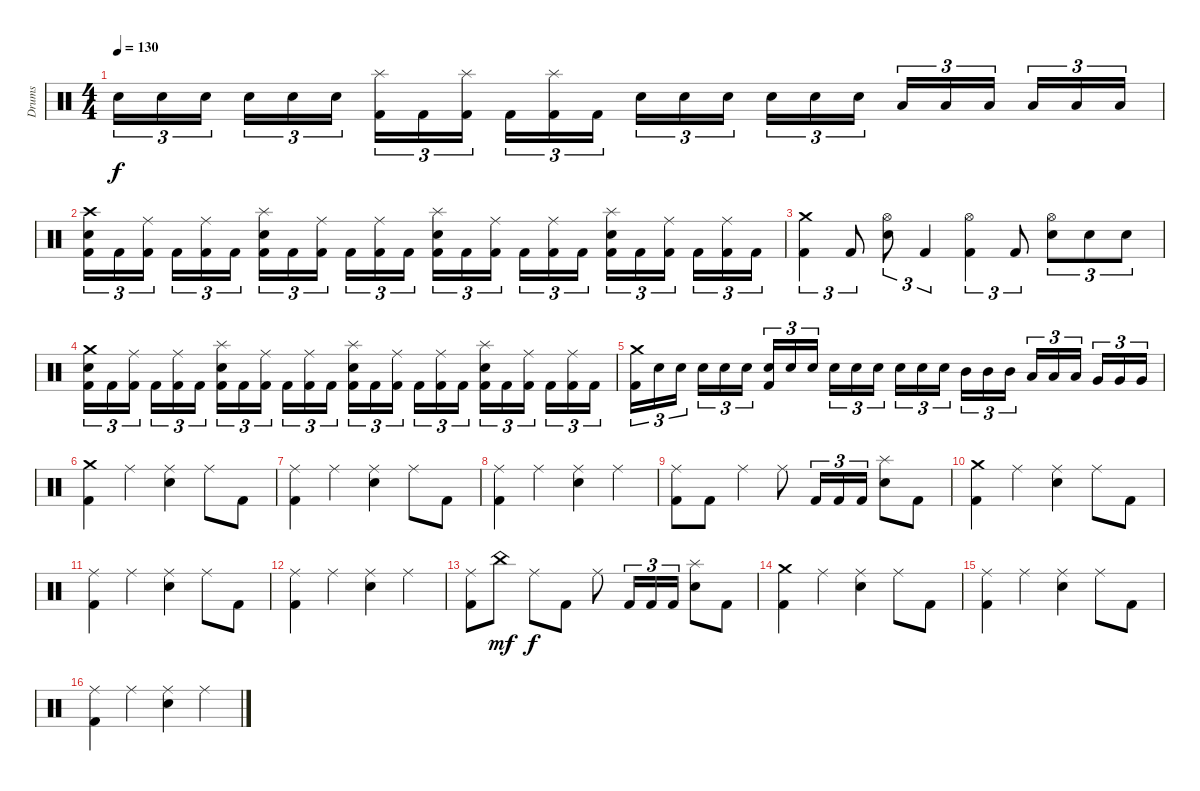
\track ("Drums" "Drums") {instrument percussion}
\staff {score}
\articulation defaults
\ts (4 4)
\tempo 130
\clef neutral
\ks c "Electric Snare (hit)".16{tu (3 2) dy f} "Electric Snare (hit)".16{tu (3 2)} "Electric Snare (hit)".16{tu (3 2)} "Electric Snare (hit)".16{tu (3 2)} "Electric Snare (hit)".16{tu (3 2)} "Electric Snare (hit)".16{tu (3 2)}
("Kick (hit) 2" "Splash (hit)").16{tu (3 2)} "Kick (hit) 2".16{tu (3 2)} ("Kick (hit) 2" "Splash (hit)").16{tu (3 2)} "Kick (hit) 2".16{tu (3 2)} ("Kick (hit) 2" "Splash (hit)").16{tu (3 2)} "Kick (hit) 2".16{tu (3 2)} "Electric Snare (hit)".16{tu (3 2)} "Electric Snare (hit)".16{tu (3 2)} "Electric Snare (hit)".16{tu (3 2)} "Electric Snare (hit)".16{tu (3 2)} "Electric Snare (hit)".16{tu (3 2)} "Electric Snare (hit)".16{tu (3 2)} "Low Tom (hit)".16{tu (3 2)} "Low Tom (hit)".16{tu (3 2)} "Low Tom (hit)".16{tu (3 2)} "Low Tom (hit)".16{tu (3 2)} "Low Tom (hit)".16{tu (3 2)} "Low Tom (hit)".16{tu (3 2)} |
("Kick (hit) 2" "Electric Snare (hit)" "Crash high (hit)").16{tu (3 2)} "Kick (hit) 2".16{tu (3 2)} ("Kick (hit) 2" "Ride (middle)").16{tu (3 2)} "Kick (hit) 2".16{tu (3 2)} ("Kick (hit) 2" "Ride (middle)").16{tu (3 2)} "Kick (hit) 2".16{tu (3 2)} ("Kick (hit) 2" "Electric Snare (hit)" "Splash (hit)").16{tu (3 2)} "Kick (hit) 2".16{tu (3 2)} ("Kick (hit) 2" "Ride (middle)").16{tu (3 2)} "Kick (hit) 2".16{tu (3 2)} ("Kick (hit) 2" "Ride (middle)").16{tu (3 2)} "Kick (hit) 2".16{tu (3 2)} ("Kick (hit) 2" "Electric Snare (hit)" "Splash (hit)").16{tu (3 2)} "Kick (hit) 2".16{tu (3 2)} ("Kick (hit) 2" "Ride (middle)").16{tu (3 2)} "Kick (hit) 2".16{tu (3 2)} ("Kick (hit) 2" "Ride (middle)").16{tu (3 2)} "Kick (hit) 2".16{tu (3 2)} ("Kick (hit) 2" "Electric Snare (hit)" "Splash (hit)").16{tu (3 2)} "Kick (hit) 2".16{tu (3 2)} ("Kick (hit) 2" "Ride (middle)").16{tu (3 2)} "Kick (hit) 2".16{tu (3 2)} ("Kick (hit) 2" "Ride (middle)").16{tu (3 2)} "Kick (hit) 2".16{tu (3 2)} |
("Kick (hit) 2" "Crash medium (hit)").4{tu (3 2)} "Kick (hit) 2".8{tu (3 2)} ("Electric Snare (hit)" "Hi-Hat (open)").8{tu (3 2)} "Kick (hit) 2".4{tu (3 2)} ("Kick (hit) 2" "Hi-Hat (open)").4{tu (3 2)} "Kick (hit) 2".8{tu (3 2)} ("Electric Snare (hit)" "Hi-Hat (open)").8{tu (3 2)} "Electric Snare (hit)".8{tu (3 2)} "Electric Snare (hit)".8{tu (3 2)} |
("Kick (hit) 2" "Electric Snare (hit)" "Crash medium (hit)").16{tu (3 2)} "Kick (hit) 2".16{tu (3 2)} ("Kick (hit) 2" "Ride (middle)").16{tu (3 2)} "Kick (hit) 2".16{tu (3 2)} ("Kick (hit) 2" "Ride (middle)").16{tu (3 2)} "Kick (hit) 2".16{tu (3 2)} ("Kick (hit) 2" "Electric Snare (hit)" "Splash (hit)").16{tu (3 2)} "Kick (hit) 2".16{tu (3 2)} ("Kick (hit) 2" "Ride (middle)").16{tu (3 2)} "Kick (hit) 2".16{tu (3 2)} ("Kick (hit) 2" "Ride (middle)").16{tu (3 2)} "Kick (hit) 2".16{tu (3 2)} ("Kick (hit) 2" "Electric Snare (hit)" "Splash (hit)").16{tu (3 2)} "Kick (hit) 2".16{tu (3 2)} ("Kick (hit) 2" "Ride (middle)").16{tu (3 2)} "Kick (hit) 2".16{tu (3 2)} ("Kick (hit) 2" "Ride (middle)").16{tu (3 2)} "Kick (hit) 2".16{tu (3 2)} ("Kick (hit) 2" "Electric Snare (hit)" "Splash (hit)").16{tu (3 2)} "Kick (hit) 2".16{tu (3 2)} ("Kick (hit) 2" "Ride (middle)").16{tu (3 2)} "Kick (hit) 2".16{tu (3 2)} ("Kick (hit) 2" "Ride (middle)").16{tu (3 2)} "Kick (hit) 2".16{tu (3 2)} |
("Kick (hit) 2" "Crash medium (hit)").16{tu (3 2)} "Electric Snare (hit)".16{tu (3 2)} "Electric Snare (hit)".16{tu (3 2)} "Electric Snare (hit)".16{tu (3 2)} "Electric Snare (hit)".16{tu (3 2)} "Electric Snare (hit)".16{tu (3 2)} ("Kick (hit) 2" "Electric Snare (hit)").16{tu (3 2)} "Electric Snare (hit)".16{tu (3 2)} "Electric Snare (hit)".16{tu (3 2)} "Electric Snare (hit)".16{tu (3 2)} "Electric Snare (hit)".16{tu (3 2)} "Electric Snare (hit)".16{tu (3 2)} "Electric Snare (hit)".16{tu (3 2)} "Electric Snare (hit)".16{tu (3 2)} "Electric Snare (hit)".16{tu (3 2)} "Mid Tom (hit)".16{tu (3 2)} "Mid Tom (hit)".16{tu (3 2)} "Mid Tom (hit)".16{tu (3 2)} "Low Tom (hit)".16{tu (3 2)} "Low Tom (hit)".16{tu (3 2)} "Low Tom (hit)".16{tu (3 2)} "Very Low Tom (hit)".16{tu (3 2)} "Very Low Tom (hit)".16{tu (3 2)} "Very Low Tom (hit)".16{tu (3 2)} |
("Kick (hit) 2" "Crash medium (hit)").4 "Ride (middle)".4 ("Snare (hit) 2" "Ride (middle)").4 "Ride (middle)".8 "Kick (hit) 2".8 |
("Kick (hit) 2" "Ride (middle)").4 "Ride (middle)".4 ("Snare (hit) 2" "Ride (middle)").4 "Ride (middle)".8 "Kick (hit) 2".8 |
("Kick (hit) 2" "Ride (middle)").4 "Ride (middle)".4 ("Snare (hit) 2" "Ride (middle)").4 "Ride (middle)".4 |
("Kick (hit) 2" "Ride (middle)").8 "Kick (hit) 2".8 "Ride (middle)".4 "Ride (middle)".8 "Kick (hit) 2".16{tu (3 2)} "Kick (hit) 2".16{tu (3 2)} "Kick (hit) 2".16{tu (3 2)} ("Snare (hit) 2" "Splash (hit)").8 "Kick (hit) 2".8 |
("Kick (hit) 2" "Crash medium (hit)").4 "Ride (middle)".4 ("Snare (hit) 2" "Ride (middle)").4 "Ride (middle)".8 "Kick (hit) 2".8 |
("Kick (hit) 2" "Ride (middle)").4 "Ride (middle)".4 ("Snare (hit) 2" "Ride (middle)").4 "Ride (middle)".8 "Kick (hit) 2".8 |
("Kick (hit) 2" "Ride (middle)").4 "Ride (middle)".4 ("Snare (hit) 2" "Ride (middle)").4 "Ride (middle)".4 |
("Kick (hit) 2" "Ride (middle)").8 "China (hit)".8{dy mf} "Ride (middle)".8{dy f} "Kick (hit) 2".8 "Ride (middle)".8 "Kick (hit) 2".16{tu (3 2)} "Kick (hit) 2".16{tu (3 2)} "Kick (hit) 2".16{tu (3 2)} ("Snare (hit) 2" "Splash (hit)").8 "Kick (hit) 2".8 |
("Kick (hit) 2" "Crash medium (hit)").4 "Ride (middle)".4 ("Snare (hit) 2" "Ride (middle)").4 "Ride (middle)".8 "Kick (hit) 2".8 |
("Kick (hit) 2" "Ride (middle)").4 "Ride (middle)".4 ("Snare (hit) 2" "Ride (middle)").4 "Ride (middle)".8 "Kick (hit) 2".8 |
("Kick (hit) 2" "Ride (middle)").4 "Ride (middle)".4 ("Snare (hit) 2" "Ride (middle)").4 "Ride (middle)".4
